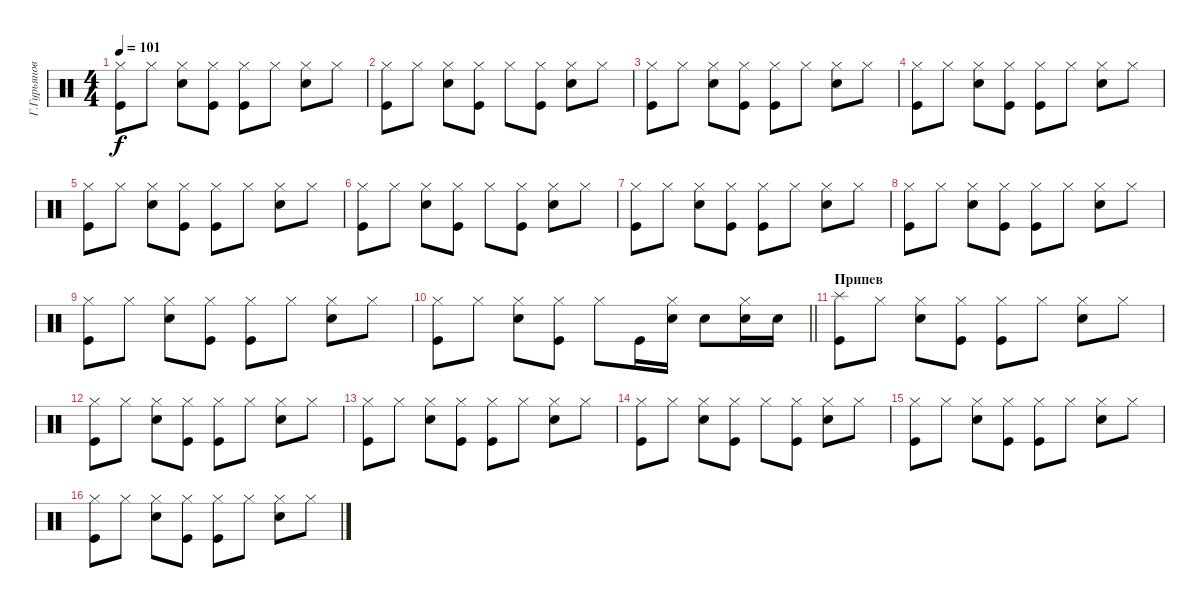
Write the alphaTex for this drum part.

\track ("Г.Гурьянов" "Г.Гурьянов") {instrument percussion}
\staff {score}
\articulation defaults
\ts (4 4)
\tempo 101
\clef neutral
\ks c
("Hi-Hat (closed)" "Kick (hit)").8{dy f} "Hi-Hat (closed)".8 ("Hi-Hat (closed)" "Snare (hit) 2").8 ("Hi-Hat (closed)" "Kick (hit)").8 ("Hi-Hat (closed)" "Kick (hit)").8 "Hi-Hat (closed)".8 ("Hi-Hat (closed)" "Snare (hit) 2").8 "Hi-Hat (closed)".8 |
("Hi-Hat (closed)" "Kick (hit)").8 "Hi-Hat (closed)".8 ("Hi-Hat (closed)" "Snare (hit) 2").8 ("Hi-Hat (closed)" "Kick (hit)").8 "Hi-Hat (closed)".8 ("Hi-Hat (closed)" "Kick (hit)").8 ("Hi-Hat (closed)" "Snare (hit) 2").8 "Hi-Hat (closed)".8 |
("Hi-Hat (closed)" "Kick (hit)").8 "Hi-Hat (closed)".8 ("Hi-Hat (closed)" "Snare (hit) 2").8 ("Hi-Hat (closed)" "Kick (hit)").8 ("Hi-Hat (closed)" "Kick (hit)").8 "Hi-Hat (closed)".8 ("Hi-Hat (closed)" "Snare (hit) 2").8 "Hi-Hat (closed)".8 |
("Hi-Hat (closed)" "Kick (hit)").8 "Hi-Hat (closed)".8 ("Hi-Hat (closed)" "Snare (hit) 2").8 ("Hi-Hat (closed)" "Kick (hit)").8 ("Hi-Hat (closed)" "Kick (hit)").8 "Hi-Hat (closed)".8 ("Hi-Hat (closed)" "Snare (hit) 2").8 "Hi-Hat (closed)".8 |
("Hi-Hat (closed)" "Kick (hit)").8 "Hi-Hat (closed)".8 ("Hi-Hat (closed)" "Snare (hit) 2").8 ("Hi-Hat (closed)" "Kick (hit)").8 ("Hi-Hat (closed)" "Kick (hit)").8 "Hi-Hat (closed)".8 ("Hi-Hat (closed)" "Snare (hit) 2").8 "Hi-Hat (closed)".8 |
("Hi-Hat (closed)" "Kick (hit)").8 "Hi-Hat (closed)".8 ("Hi-Hat (closed)" "Snare (hit) 2").8 ("Hi-Hat (closed)" "Kick (hit)").8 "Hi-Hat (closed)".8 ("Hi-Hat (closed)" "Kick (hit)").8 ("Hi-Hat (closed)" "Snare (hit) 2").8 "Hi-Hat (closed)".8 |
("Hi-Hat (closed)" "Kick (hit)").8 "Hi-Hat (closed)".8 ("Hi-Hat (closed)" "Snare (hit) 2").8 ("Hi-Hat (closed)" "Kick (hit)").8 ("Hi-Hat (closed)" "Kick (hit)").8 "Hi-Hat (closed)".8 ("Hi-Hat (closed)" "Snare (hit) 2").8 "Hi-Hat (closed)".8 |
("Hi-Hat (closed)" "Kick (hit)").8 "Hi-Hat (closed)".8 ("Hi-Hat (closed)" "Snare (hit) 2").8 ("Hi-Hat (closed)" "Kick (hit)").8 ("Hi-Hat (closed)" "Kick (hit)").8 "Hi-Hat (closed)".8 ("Hi-Hat (closed)" "Snare (hit) 2").8 "Hi-Hat (closed)".8 |
("Hi-Hat (closed)" "Kick (hit)").8 "Hi-Hat (closed)".8 ("Hi-Hat (closed)" "Snare (hit) 2").8 ("Hi-Hat (closed)" "Kick (hit)").8 ("Hi-Hat (closed)" "Kick (hit)").8 "Hi-Hat (closed)".8 ("Hi-Hat (closed)" "Snare (hit) 2").8 "Hi-Hat (closed)".8 |
\barLineRight lightlight
("Hi-Hat (closed)" "Kick (hit)").8 "Hi-Hat (closed)".8 ("Hi-Hat (closed)" "Snare (hit) 2").8 ("Hi-Hat (closed)" "Kick (hit)").8 "Hi-Hat (closed)".8 "Kick (hit)".16 ("Hi-Hat (closed)" "Snare (hit) 2").16 "Snare (hit) 2".8 ("Hi-Hat (closed)" "Snare (hit) 2").16 "Snare (hit) 2".16 |
\section ("" "Припев")
("Splash (hit)" "Kick (hit)").8 "Hi-Hat (closed)".8 ("Hi-Hat (closed)" "Snare (hit) 2").8 ("Hi-Hat (closed)" "Kick (hit)").8 ("Hi-Hat (closed)" "Kick (hit)").8 "Hi-Hat (closed)".8 ("Hi-Hat (closed)" "Snare (hit) 2").8 "Hi-Hat (closed)".8 |
("Hi-Hat (closed)" "Kick (hit)").8 "Hi-Hat (closed)".8 ("Hi-Hat (closed)" "Snare (hit) 2").8 ("Hi-Hat (closed)" "Kick (hit)").8 ("Hi-Hat (closed)" "Kick (hit)").8 "Hi-Hat (closed)".8 ("Hi-Hat (closed)" "Snare (hit) 2").8 "Hi-Hat (closed)".8 |
("Hi-Hat (closed)" "Kick (hit)").8 "Hi-Hat (closed)".8 ("Hi-Hat (closed)" "Snare (hit) 2").8 ("Hi-Hat (closed)" "Kick (hit)").8 ("Hi-Hat (closed)" "Kick (hit)").8 "Hi-Hat (closed)".8 ("Hi-Hat (closed)" "Snare (hit) 2").8 "Hi-Hat (closed)".8 |
("Hi-Hat (closed)" "Kick (hit)").8 "Hi-Hat (closed)".8 ("Hi-Hat (closed)" "Snare (hit) 2").8 ("Hi-Hat (closed)" "Kick (hit)").8 "Hi-Hat (closed)".8 ("Hi-Hat (closed)" "Kick (hit)").8 ("Hi-Hat (closed)" "Snare (hit) 2").8 "Hi-Hat (closed)".8 |
("Hi-Hat (closed)" "Kick (hit)").8 "Hi-Hat (closed)".8 ("Hi-Hat (closed)" "Snare (hit) 2").8 ("Hi-Hat (closed)" "Kick (hit)").8 ("Hi-Hat (closed)" "Kick (hit)").8 "Hi-Hat (closed)".8 ("Hi-Hat (closed)" "Snare (hit) 2").8 "Hi-Hat (closed)".8 |
("Hi-Hat (closed)" "Kick (hit)").8 "Hi-Hat (closed)".8 ("Hi-Hat (closed)" "Snare (hit) 2").8 ("Hi-Hat (closed)" "Kick (hit)").8 ("Hi-Hat (closed)" "Kick (hit)").8 "Hi-Hat (closed)".8 ("Hi-Hat (closed)" "Snare (hit) 2").8 "Hi-Hat (closed)".8
